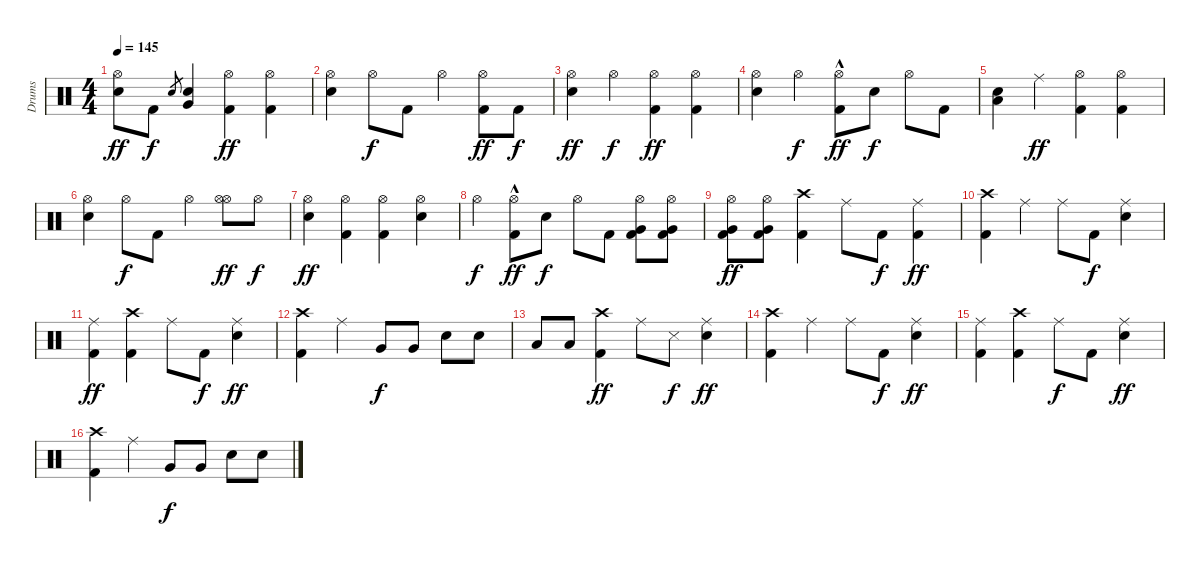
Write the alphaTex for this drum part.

\track ("Drums" "Drums") {instrument percussion}
\staff {score}
\articulation defaults
\ts (4 4)
\tempo 145
\clef neutral
\ks c
("Hi-Hat (open)" "Electric Snare (hit)").8{dy ff} "Kick (hit) 2".8{dy f} "Electric Snare (hit)".8{gr} ("Very Low Tom (hit)" "Electric Snare (hit)").4 ("Hi-Hat (open)" "Kick (hit) 2").4{dy ff} ("Hi-Hat (open)" "Kick (hit) 2").4 |
("Hi-Hat (open)" "Electric Snare (hit)").4 "Hi-Hat (open)".8{dy f} "Kick (hit) 2".8 "Hi-Hat (open)".4 ("Hi-Hat (open)" "Kick (hit) 2").8{dy ff} "Kick (hit) 2".8{dy f} |
("Hi-Hat (open)" "Electric Snare (hit)").4{dy ff} "Hi-Hat (open)".4{dy f} ("Hi-Hat (open)" "Kick (hit) 2").4{dy ff} ("Hi-Hat (open)" "Kick (hit) 2").4 |
("Hi-Hat (open)" "Electric Snare (hit)").4 "Hi-Hat (open)".4{dy f} ("Hi-Hat (open)"{hac} "Kick (hit) 2").8{dy ff} "Electric Snare (hit)".8{dy f} "Hi-Hat (open)".8 "Kick (hit) 2".8 |
("Low Tom (hit)" "Electric Snare (hit)").4 "Ride (middle)".4{dy ff} ("Hi-Hat (open)" "Kick (hit) 2").4 ("Hi-Hat (open)" "Kick (hit) 2").4 |
("Hi-Hat (open)" "Electric Snare (hit)").4 "Hi-Hat (open)".8{dy f} "Kick (hit) 2".8 "Hi-Hat (open)".4 ("Hi-Hat (open)" "Hi-Hat (open)").8{dy ff} "Hi-Hat (open)".8{dy f} |
("Hi-Hat (open)" "Electric Snare (hit)").4{dy ff} ("Hi-Hat (open)" "Kick (hit) 2").4 ("Hi-Hat (open)" "Kick (hit) 2").4 ("Hi-Hat (open)" "Electric Snare (hit)").4 |
"Hi-Hat (open)".4{dy f} ("Hi-Hat (open)"{hac} "Kick (hit) 2").8{dy ff} "Electric Snare (hit)".8{dy f} "Hi-Hat (open)".8 "Kick (hit) 2".8 ("Hi-Hat (open)" "Very Low Tom (hit)" "Kick (hit) 2").8 ("Hi-Hat (open)" "Very Low Tom (hit)" "Kick (hit) 2").8 |
("Hi-Hat (open)" "Very Low Tom (hit)" "Kick (hit) 2").8{dy ff} ("Hi-Hat (open)" "Very Low Tom (hit)" "Kick (hit) 2").8 ("Crash high (hit)" "Kick (hit) 2").4 "Ride (middle)".8 "Kick (hit) 2".8{dy f} ("Ride (middle)" "Kick (hit) 2").4{dy ff} |
("Crash high (hit)" "Kick (hit) 2").4 "Ride (middle)".4 "Ride (middle)".8 "Kick (hit) 2".8{dy f} ("Ride (middle)" "Electric Snare (hit)").4 |
("Ride (middle)" "Kick (hit) 2").4{dy ff} ("Crash high (hit)" "Kick (hit) 2").4 "Ride (middle)".8 "Kick (hit) 2".8{dy f} ("Ride (middle)" "Electric Snare (hit)").4{dy ff} |
("Crash high (hit)" "Kick (hit) 2").4 "Ride (middle)".4 "Very Low Tom (hit)".8{dy f} "Very Low Tom (hit)".8 "Electric Snare (hit)".8 "Electric Snare (hit)".8 |
"Low Tom (hit)".8 "Low Tom (hit)".8 ("Crash high (hit)" "Kick (hit) 2").4{dy ff} "Ride (middle)".8 "Snare (side stick) 3".8{dy f} ("Ride (middle)" "Electric Snare (hit)").4{dy ff} |
("Crash high (hit)" "Kick (hit) 2").4 "Ride (middle)".4 "Ride (middle)".8 "Kick (hit) 2".8{dy f} ("Ride (middle)" "Electric Snare (hit)").4{dy ff} |
("Ride (middle)" "Kick (hit) 2").4 ("Crash high (hit)" "Kick (hit) 2").4 "Ride (middle)".8{dy f} "Kick (hit) 2".8 ("Ride (middle)" "Electric Snare (hit)").4{dy ff} |
("Crash high (hit)" "Kick (hit) 2").4 "Ride (middle)".4 "Very Low Tom (hit)".8{dy f} "Very Low Tom (hit)".8 "Electric Snare (hit)".8 "Electric Snare (hit)".8
